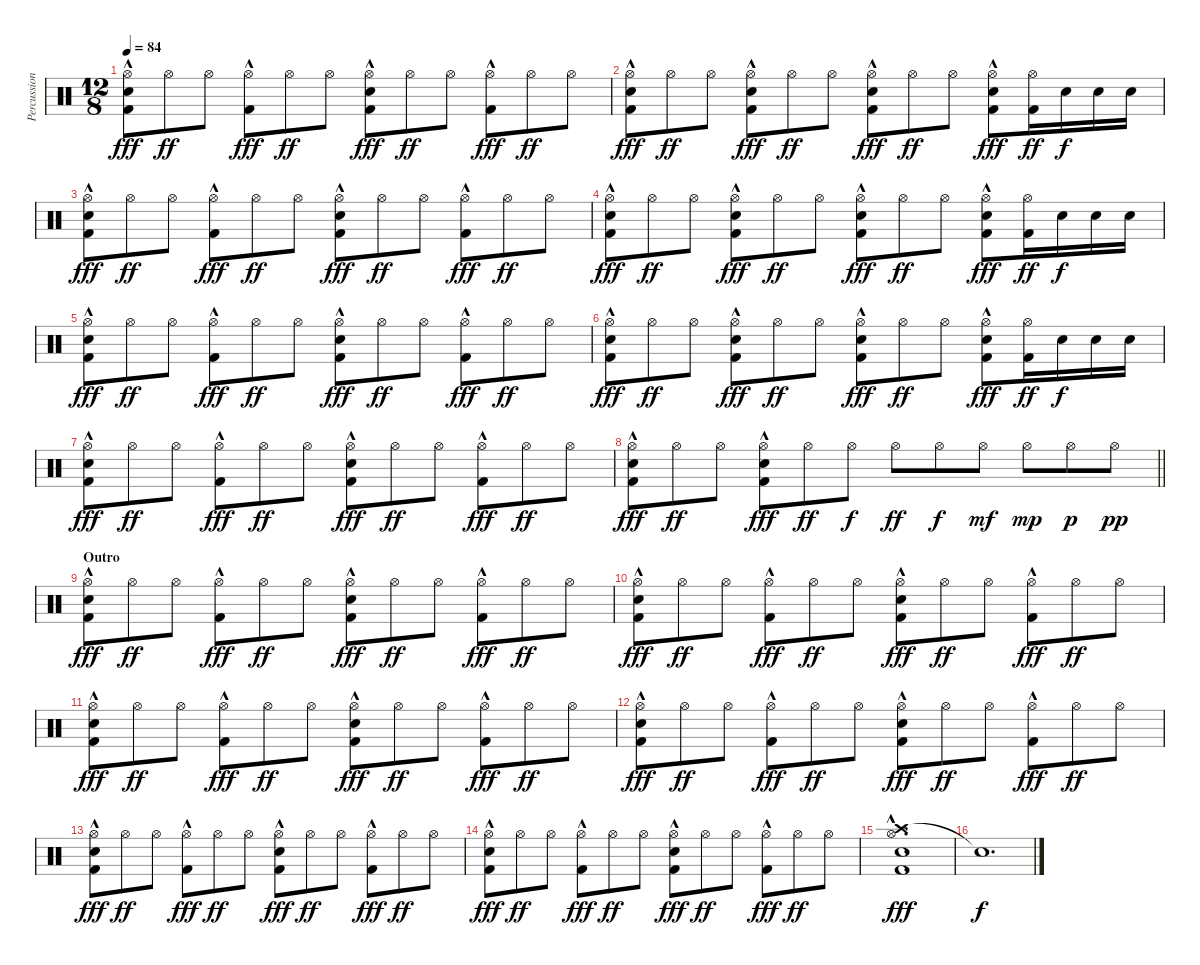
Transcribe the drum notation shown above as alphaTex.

\track ("Percussion" "Percussion") {instrument percussion}
\staff {score}
\articulation defaults
\ts (12 8)
\tempo 84
\clef neutral
\ks c
("Electric Snare (hit)" "Hi-Hat (open)" "Kick (hit) 2"{hac}).8{dy fff} "Hi-Hat (open)".8{dy ff} "Hi-Hat (open)".8 ("Hi-Hat (open)" "Kick (hit) 2"{hac}).8{dy fff} "Hi-Hat (open)".8{dy ff} "Hi-Hat (open)".8 ("Electric Snare (hit)" "Hi-Hat (open)" "Kick (hit) 2"{hac}).8{dy fff} "Hi-Hat (open)".8{dy ff} "Hi-Hat (open)".8 ("Hi-Hat (open)" "Kick (hit) 2"{hac}).8{dy fff} "Hi-Hat (open)".8{dy ff} "Hi-Hat (open)".8 |
("Electric Snare (hit)" "Hi-Hat (open)" "Kick (hit) 2"{hac}).8{dy fff} "Hi-Hat (open)".8{dy ff} "Hi-Hat (open)".8 ("Electric Snare (hit)" "Hi-Hat (open)" "Kick (hit) 2"{hac}).8{dy fff} "Hi-Hat (open)".8{dy ff} "Hi-Hat (open)".8 ("Electric Snare (hit)" "Hi-Hat (open)" "Kick (hit) 2"{hac}).8{dy fff} "Hi-Hat (open)".8{dy ff} "Hi-Hat (open)".8 ("Electric Snare (hit)" "Hi-Hat (open)" "Kick (hit) 2"{hac}).8{dy fff} ("Hi-Hat (open)" "Kick (hit) 2").16{dy ff} "Electric Snare (hit)".16{dy f} "Electric Snare (hit)".16 "Electric Snare (hit)".16 |
("Electric Snare (hit)" "Hi-Hat (open)" "Kick (hit) 2"{hac}).8{dy fff} "Hi-Hat (open)".8{dy ff} "Hi-Hat (open)".8 ("Hi-Hat (open)" "Kick (hit) 2"{hac}).8{dy fff} "Hi-Hat (open)".8{dy ff} "Hi-Hat (open)".8 ("Electric Snare (hit)" "Hi-Hat (open)" "Kick (hit) 2"{hac}).8{dy fff} "Hi-Hat (open)".8{dy ff} "Hi-Hat (open)".8 ("Hi-Hat (open)" "Kick (hit) 2"{hac}).8{dy fff} "Hi-Hat (open)".8{dy ff} "Hi-Hat (open)".8 |
("Electric Snare (hit)" "Hi-Hat (open)" "Kick (hit) 2"{hac}).8{dy fff} "Hi-Hat (open)".8{dy ff} "Hi-Hat (open)".8 ("Electric Snare (hit)" "Hi-Hat (open)" "Kick (hit) 2"{hac}).8{dy fff} "Hi-Hat (open)".8{dy ff} "Hi-Hat (open)".8 ("Electric Snare (hit)" "Hi-Hat (open)" "Kick (hit) 2"{hac}).8{dy fff} "Hi-Hat (open)".8{dy ff} "Hi-Hat (open)".8 ("Electric Snare (hit)" "Hi-Hat (open)" "Kick (hit) 2"{hac}).8{dy fff} ("Hi-Hat (open)" "Kick (hit) 2").16{dy ff} "Electric Snare (hit)".16{dy f} "Electric Snare (hit)".16 "Electric Snare (hit)".16 |
("Electric Snare (hit)" "Hi-Hat (open)" "Kick (hit) 2"{hac}).8{dy fff} "Hi-Hat (open)".8{dy ff} "Hi-Hat (open)".8 ("Hi-Hat (open)" "Kick (hit) 2"{hac}).8{dy fff} "Hi-Hat (open)".8{dy ff} "Hi-Hat (open)".8 ("Electric Snare (hit)" "Hi-Hat (open)" "Kick (hit) 2"{hac}).8{dy fff} "Hi-Hat (open)".8{dy ff} "Hi-Hat (open)".8 ("Hi-Hat (open)" "Kick (hit) 2"{hac}).8{dy fff} "Hi-Hat (open)".8{dy ff} "Hi-Hat (open)".8 |
("Electric Snare (hit)" "Hi-Hat (open)" "Kick (hit) 2"{hac}).8{dy fff} "Hi-Hat (open)".8{dy ff} "Hi-Hat (open)".8 ("Electric Snare (hit)" "Hi-Hat (open)" "Kick (hit) 2"{hac}).8{dy fff} "Hi-Hat (open)".8{dy ff} "Hi-Hat (open)".8 ("Electric Snare (hit)" "Hi-Hat (open)" "Kick (hit) 2"{hac}).8{dy fff} "Hi-Hat (open)".8{dy ff} "Hi-Hat (open)".8 ("Electric Snare (hit)" "Hi-Hat (open)" "Kick (hit) 2"{hac}).8{dy fff} ("Hi-Hat (open)" "Kick (hit) 2").16{dy ff} "Electric Snare (hit)".16{dy f} "Electric Snare (hit)".16 "Electric Snare (hit)".16 |
("Electric Snare (hit)" "Hi-Hat (open)" "Kick (hit) 2"{hac}).8{dy fff} "Hi-Hat (open)".8{dy ff} "Hi-Hat (open)".8 ("Hi-Hat (open)" "Kick (hit) 2"{hac}).8{dy fff} "Hi-Hat (open)".8{dy ff} "Hi-Hat (open)".8 ("Electric Snare (hit)" "Hi-Hat (open)" "Kick (hit) 2"{hac}).8{dy fff} "Hi-Hat (open)".8{dy ff} "Hi-Hat (open)".8 ("Hi-Hat (open)" "Kick (hit) 2"{hac}).8{dy fff} "Hi-Hat (open)".8{dy ff} "Hi-Hat (open)".8 |
\barLineRight lightlight
("Electric Snare (hit)" "Hi-Hat (open)" "Kick (hit) 2"{hac}).8{dy fff} "Hi-Hat (open)".8{dy ff} "Hi-Hat (open)".8 ("Electric Snare (hit)" "Hi-Hat (open)" "Kick (hit) 2"{hac}).8{dy fff} "Hi-Hat (open)".8{dy ff} "Hi-Hat (open)".8{dy f} "Hi-Hat (open)".8{dy ff} "Hi-Hat (open)".8{dy f} "Hi-Hat (open)".8{dy mf} "Hi-Hat (open)".8{dy mp} "Hi-Hat (open)".8{dy p} "Hi-Hat (open)".8{dy pp} |
\section ("" "Outro")
("Electric Snare (hit)" "Hi-Hat (open)" "Kick (hit) 2"{hac}).8{dy fff} "Hi-Hat (open)".8{dy ff} "Hi-Hat (open)".8 ("Hi-Hat (open)" "Kick (hit) 2"{hac}).8{dy fff} "Hi-Hat (open)".8{dy ff} "Hi-Hat (open)".8 ("Electric Snare (hit)" "Hi-Hat (open)" "Kick (hit) 2"{hac}).8{dy fff} "Hi-Hat (open)".8{dy ff} "Hi-Hat (open)".8 ("Hi-Hat (open)" "Kick (hit) 2"{hac}).8{dy fff} "Hi-Hat (open)".8{dy ff} "Hi-Hat (open)".8 |
("Electric Snare (hit)" "Hi-Hat (open)" "Kick (hit) 2"{hac}).8{dy fff} "Hi-Hat (open)".8{dy ff} "Hi-Hat (open)".8 ("Hi-Hat (open)" "Kick (hit) 2"{hac}).8{dy fff} "Hi-Hat (open)".8{dy ff} "Hi-Hat (open)".8 ("Electric Snare (hit)" "Hi-Hat (open)" "Kick (hit) 2"{hac}).8{dy fff} "Hi-Hat (open)".8{dy ff} "Hi-Hat (open)".8 ("Hi-Hat (open)" "Kick (hit) 2"{hac}).8{dy fff} "Hi-Hat (open)".8{dy ff} "Hi-Hat (open)".8 |
("Electric Snare (hit)" "Hi-Hat (open)" "Kick (hit) 2"{hac}).8{dy fff} "Hi-Hat (open)".8{dy ff} "Hi-Hat (open)".8 ("Hi-Hat (open)" "Kick (hit) 2"{hac}).8{dy fff} "Hi-Hat (open)".8{dy ff} "Hi-Hat (open)".8 ("Electric Snare (hit)" "Hi-Hat (open)" "Kick (hit) 2"{hac}).8{dy fff} "Hi-Hat (open)".8{dy ff} "Hi-Hat (open)".8 ("Hi-Hat (open)" "Kick (hit) 2"{hac}).8{dy fff} "Hi-Hat (open)".8{dy ff} "Hi-Hat (open)".8 |
("Electric Snare (hit)" "Hi-Hat (open)" "Kick (hit) 2"{hac}).8{dy fff} "Hi-Hat (open)".8{dy ff} "Hi-Hat (open)".8 ("Hi-Hat (open)" "Kick (hit) 2"{hac}).8{dy fff} "Hi-Hat (open)".8{dy ff} "Hi-Hat (open)".8 ("Electric Snare (hit)" "Hi-Hat (open)" "Kick (hit) 2"{hac}).8{dy fff} "Hi-Hat (open)".8{dy ff} "Hi-Hat (open)".8 ("Hi-Hat (open)" "Kick (hit) 2"{hac}).8{dy fff} "Hi-Hat (open)".8{dy ff} "Hi-Hat (open)".8 |
("Electric Snare (hit)" "Hi-Hat (open)" "Kick (hit) 2"{hac}).8{dy fff} "Hi-Hat (open)".8{dy ff} "Hi-Hat (open)".8 ("Hi-Hat (open)" "Kick (hit) 2"{hac}).8{dy fff} "Hi-Hat (open)".8{dy ff} "Hi-Hat (open)".8 ("Electric Snare (hit)" "Hi-Hat (open)" "Kick (hit) 2"{hac}).8{dy fff} "Hi-Hat (open)".8{dy ff} "Hi-Hat (open)".8 ("Hi-Hat (open)" "Kick (hit) 2"{hac}).8{dy fff} "Hi-Hat (open)".8{dy ff} "Hi-Hat (open)".8 |
("Electric Snare (hit)" "Hi-Hat (open)" "Kick (hit) 2"{hac}).8{dy fff} "Hi-Hat (open)".8{dy ff} "Hi-Hat (open)".8 ("Hi-Hat (open)" "Kick (hit) 2"{hac}).8{dy fff} "Hi-Hat (open)".8{dy ff} "Hi-Hat (open)".8 ("Electric Snare (hit)" "Hi-Hat (open)" "Kick (hit) 2"{hac}).8{dy fff} "Hi-Hat (open)".8{dy ff} "Hi-Hat (open)".8 ("Hi-Hat (open)" "Kick (hit) 2"{hac}).8{dy fff} "Hi-Hat (open)".8{dy ff} "Hi-Hat (open)".8 |
("Crash high (hit)"{hac} "Electric Snare (hit)" "Hi-Hat (open)" "Kick (hit) 2"{hac}).1{d dy fff} |
"Snare (hit)"{t}.1{d dy f}
